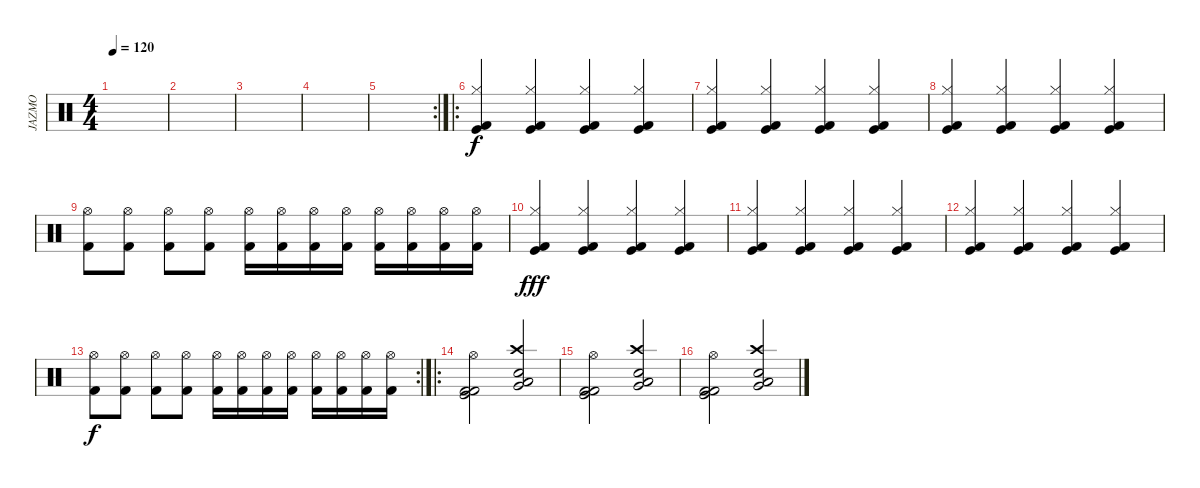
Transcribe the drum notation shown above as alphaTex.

\track ("JAZMO" "JAZMO") {instrument percussion}
\staff {score}
\articulation defaults
\ts (4 4)
\tempo 120
\clef neutral
\ks c
|
|
|
|
\rc 2
|
\ro
("Kick (hit)" "Hi-Hat (closed)" "Kick (hit) 2").4 ("Kick (hit)" "Hi-Hat (closed)" "Kick (hit) 2").4 ("Kick (hit)" "Hi-Hat (closed)" "Kick (hit) 2").4 ("Kick (hit)" "Hi-Hat (closed)" "Kick (hit) 2").4 |
("Kick (hit)" "Hi-Hat (closed)" "Kick (hit) 2").4 ("Kick (hit)" "Hi-Hat (closed)" "Kick (hit) 2").4 ("Kick (hit)" "Hi-Hat (closed)" "Kick (hit) 2").4 ("Kick (hit)" "Hi-Hat (closed)" "Kick (hit) 2").4 |
("Kick (hit)" "Hi-Hat (closed)" "Kick (hit) 2").4 ("Kick (hit)" "Hi-Hat (closed)" "Kick (hit) 2").4 ("Kick (hit)" "Hi-Hat (closed)" "Kick (hit) 2").4 ("Kick (hit)" "Hi-Hat (closed)" "Kick (hit) 2").4 |
("Hi-Hat (open)" "Kick (hit) 2").8{dy f} ("Hi-Hat (open)" "Kick (hit) 2").8 ("Hi-Hat (open)" "Kick (hit) 2").8 ("Hi-Hat (open)" "Kick (hit) 2").8 ("Hi-Hat (open)" "Kick (hit) 2").16 ("Hi-Hat (open)" "Kick (hit) 2").16 ("Hi-Hat (open)" "Kick (hit) 2").16 ("Hi-Hat (open)" "Kick (hit) 2").16 ("Hi-Hat (open)" "Kick (hit) 2").16 ("Hi-Hat (open)" "Kick (hit) 2").16 ("Hi-Hat (open)" "Kick (hit) 2").16 ("Hi-Hat (open)" "Kick (hit) 2").16 |
("Kick (hit)" "Hi-Hat (closed)" "Kick (hit) 2").4{dy fff} ("Kick (hit)" "Hi-Hat (closed)" "Kick (hit) 2").4 ("Kick (hit)" "Hi-Hat (closed)" "Kick (hit) 2").4 ("Kick (hit)" "Hi-Hat (closed)" "Kick (hit) 2").4 |
("Kick (hit)" "Hi-Hat (closed)" "Kick (hit) 2").4 ("Kick (hit)" "Hi-Hat (closed)" "Kick (hit) 2").4 ("Kick (hit)" "Hi-Hat (closed)" "Kick (hit) 2").4 ("Kick (hit)" "Hi-Hat (closed)" "Kick (hit) 2").4 |
("Kick (hit)" "Hi-Hat (closed)" "Kick (hit) 2").4 ("Kick (hit)" "Hi-Hat (closed)" "Kick (hit) 2").4 ("Kick (hit)" "Hi-Hat (closed)" "Kick (hit) 2").4 ("Kick (hit)" "Hi-Hat (closed)" "Kick (hit) 2").4 |
\rc 2
("Hi-Hat (open)" "Kick (hit) 2").8{dy f} ("Hi-Hat (open)" "Kick (hit) 2").8 ("Hi-Hat (open)" "Kick (hit) 2").8 ("Hi-Hat (open)" "Kick (hit) 2").8 ("Hi-Hat (open)" "Kick (hit) 2").16 ("Hi-Hat (open)" "Kick (hit) 2").16 ("Hi-Hat (open)" "Kick (hit) 2").16 ("Hi-Hat (open)" "Kick (hit) 2").16 ("Hi-Hat (open)" "Kick (hit) 2").16 ("Hi-Hat (open)" "Kick (hit) 2").16 ("Hi-Hat (open)" "Kick (hit) 2").16 ("Hi-Hat (open)" "Kick (hit) 2").16 |
\ro
("Kick (hit) 2" "Kick (hit)" "Hi-Hat (open)" "Kick (hit) 2").2 ("Very Low Tom (hit)" "Low Floor Tom (hit)" "Crash high (hit)" "Electric Snare (hit)").2 |
("Kick (hit) 2" "Kick (hit)" "Hi-Hat (open)" "Kick (hit) 2").2 ("Very Low Tom (hit)" "Low Floor Tom (hit)" "Crash high (hit)" "Electric Snare (hit)").2 |
("Kick (hit) 2" "Kick (hit)" "Hi-Hat (open)" "Kick (hit) 2").2 ("Very Low Tom (hit)" "Low Floor Tom (hit)" "Crash high (hit)" "Electric Snare (hit)").2
